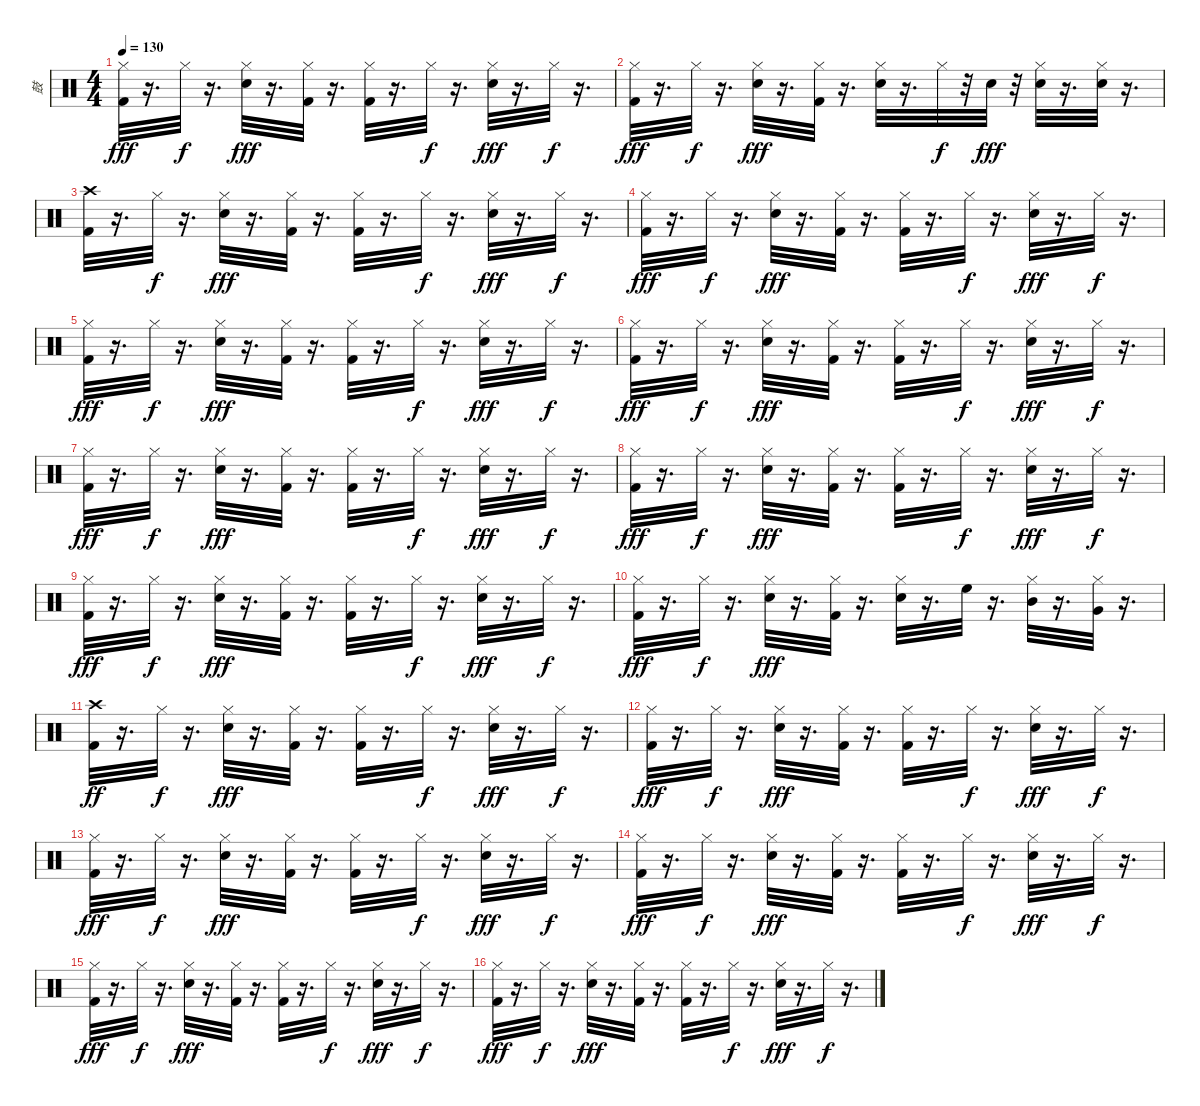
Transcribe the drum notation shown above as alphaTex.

\track ("鼓" "鼓") {instrument percussion}
\staff {score}
\articulation defaults
\ts (4 4)
\tempo 130
\clef neutral
\ks c
("Kick (hit) 2" "Hi-Hat (closed)").32{dy fff} r.16{d} "Hi-Hat (closed)".32{dy f} r.16{d} ("Hi-Hat (closed)" "Electric Snare (hit)").32{dy fff} r.16{d} ("Kick (hit) 2" "Hi-Hat (closed)").32 r.16{d} ("Kick (hit) 2" "Hi-Hat (closed)").32 r.16{d} "Hi-Hat (closed)".32{dy f} r.16{d} ("Hi-Hat (closed)" "Electric Snare (hit)").32{dy fff} r.16{d} "Hi-Hat (closed)".32{dy f} r.16{d} |
("Kick (hit) 2" "Hi-Hat (closed)").32{dy fff} r.16{d} "Hi-Hat (closed)".32{dy f} r.16{d} ("Hi-Hat (closed)" "Electric Snare (hit)").32{dy fff} r.16{d} ("Kick (hit) 2" "Hi-Hat (closed)").32 r.16{d} ("Electric Snare (hit)" "Hi-Hat (closed)").32 r.16{d} "Hi-Hat (closed)".32{dy f} r.32 "Electric Snare (hit)".32{dy fff} r.32 ("Hi-Hat (closed)" "Electric Snare (hit)").32 r.16{d} ("Hi-Hat (closed)" "Electric Snare (hit)").32 r.16{d} |
("Crash high (hit)" "Kick (hit) 2").32 r.16{d} "Hi-Hat (closed)".32{dy f} r.16{d} ("Hi-Hat (closed)" "Electric Snare (hit)").32{dy fff} r.16{d} ("Kick (hit) 2" "Hi-Hat (closed)").32 r.16{d} ("Kick (hit) 2" "Hi-Hat (closed)").32 r.16{d} "Hi-Hat (closed)".32{dy f} r.16{d} ("Hi-Hat (closed)" "Electric Snare (hit)").32{dy fff} r.16{d} "Hi-Hat (closed)".32{dy f} r.16{d} |
("Kick (hit) 2" "Hi-Hat (closed)").32{dy fff} r.16{d} "Hi-Hat (closed)".32{dy f} r.16{d} ("Hi-Hat (closed)" "Electric Snare (hit)").32{dy fff} r.16{d} ("Kick (hit) 2" "Hi-Hat (closed)").32 r.16{d} ("Kick (hit) 2" "Hi-Hat (closed)").32 r.16{d} "Hi-Hat (closed)".32{dy f} r.16{d} ("Hi-Hat (closed)" "Electric Snare (hit)").32{dy fff} r.16{d} "Hi-Hat (closed)".32{dy f} r.16{d} |
("Kick (hit) 2" "Hi-Hat (closed)").32{dy fff} r.16{d} "Hi-Hat (closed)".32{dy f} r.16{d} ("Hi-Hat (closed)" "Electric Snare (hit)").32{dy fff} r.16{d} ("Kick (hit) 2" "Hi-Hat (closed)").32 r.16{d} ("Kick (hit) 2" "Hi-Hat (closed)").32 r.16{d} "Hi-Hat (closed)".32{dy f} r.16{d} ("Hi-Hat (closed)" "Electric Snare (hit)").32{dy fff} r.16{d} "Hi-Hat (closed)".32{dy f} r.16{d} |
("Kick (hit) 2" "Hi-Hat (closed)").32{dy fff} r.16{d} "Hi-Hat (closed)".32{dy f} r.16{d} ("Hi-Hat (closed)" "Electric Snare (hit)").32{dy fff} r.16{d} ("Kick (hit) 2" "Hi-Hat (closed)").32 r.16{d} ("Kick (hit) 2" "Hi-Hat (closed)").32 r.16{d} "Hi-Hat (closed)".32{dy f} r.16{d} ("Hi-Hat (closed)" "Electric Snare (hit)").32{dy fff} r.16{d} "Hi-Hat (closed)".32{dy f} r.16{d} |
("Kick (hit) 2" "Hi-Hat (closed)").32{dy fff} r.16{d} "Hi-Hat (closed)".32{dy f} r.16{d} ("Hi-Hat (closed)" "Electric Snare (hit)").32{dy fff} r.16{d} ("Kick (hit) 2" "Hi-Hat (closed)").32 r.16{d} ("Kick (hit) 2" "Hi-Hat (closed)").32 r.16{d} "Hi-Hat (closed)".32{dy f} r.16{d} ("Hi-Hat (closed)" "Electric Snare (hit)").32{dy fff} r.16{d} "Hi-Hat (closed)".32{dy f} r.16{d} |
("Kick (hit) 2" "Hi-Hat (closed)").32{dy fff} r.16{d} "Hi-Hat (closed)".32{dy f} r.16{d} ("Hi-Hat (closed)" "Electric Snare (hit)").32{dy fff} r.16{d} ("Kick (hit) 2" "Hi-Hat (closed)").32 r.16{d} ("Kick (hit) 2" "Hi-Hat (closed)").32 r.16{d} "Hi-Hat (closed)".32{dy f} r.16{d} ("Hi-Hat (closed)" "Electric Snare (hit)").32{dy fff} r.16{d} "Hi-Hat (closed)".32{dy f} r.16{d} |
("Kick (hit) 2" "Hi-Hat (closed)").32{dy fff} r.16{d} "Hi-Hat (closed)".32{dy f} r.16{d} ("Hi-Hat (closed)" "Electric Snare (hit)").32{dy fff} r.16{d} ("Kick (hit) 2" "Hi-Hat (closed)").32 r.16{d} ("Kick (hit) 2" "Hi-Hat (closed)").32 r.16{d} "Hi-Hat (closed)".32{dy f} r.16{d} ("Hi-Hat (closed)" "Electric Snare (hit)").32{dy fff} r.16{d} "Hi-Hat (closed)".32{dy f} r.16{d} |
("Hi-Hat (closed)" "Kick (hit) 2").32{dy fff} r.16{d} "Hi-Hat (closed)".32{dy f} r.16{d} ("Hi-Hat (closed)" "Electric Snare (hit)").32{dy fff} r.16{d} ("Kick (hit) 2" "Hi-Hat (closed)").32 r.16{d} ("Electric Snare (hit)" "Hi-Hat (closed)").32 r.16{d} "High Floor Tom (hit)".32 r.16{d} ("Hi-Hat (closed)" "Mid Tom (hit)").32 r.16{d} ("Very Low Tom (hit)" "Hi-Hat (closed)").32 r.16{d} |
("Kick (hit) 2" "Crash high (hit)").32{dy ff} r.16{d} "Hi-Hat (closed)".32{dy f} r.16{d} ("Hi-Hat (closed)" "Electric Snare (hit)").32{dy fff} r.16{d} ("Kick (hit) 2" "Hi-Hat (closed)").32 r.16{d} ("Kick (hit) 2" "Hi-Hat (closed)").32 r.16{d} "Hi-Hat (closed)".32{dy f} r.16{d} ("Hi-Hat (closed)" "Electric Snare (hit)").32{dy fff} r.16{d} "Hi-Hat (closed)".32{dy f} r.16{d} |
("Kick (hit) 2" "Hi-Hat (closed)").32{dy fff} r.16{d} "Hi-Hat (closed)".32{dy f} r.16{d} ("Hi-Hat (closed)" "Electric Snare (hit)").32{dy fff} r.16{d} ("Kick (hit) 2" "Hi-Hat (closed)").32 r.16{d} ("Kick (hit) 2" "Hi-Hat (closed)").32 r.16{d} "Hi-Hat (closed)".32{dy f} r.16{d} ("Hi-Hat (closed)" "Electric Snare (hit)").32{dy fff} r.16{d} "Hi-Hat (closed)".32{dy f} r.16{d} |
("Kick (hit) 2" "Hi-Hat (closed)").32{dy fff} r.16{d} "Hi-Hat (closed)".32{dy f} r.16{d} ("Hi-Hat (closed)" "Electric Snare (hit)").32{dy fff} r.16{d} ("Kick (hit) 2" "Hi-Hat (closed)").32 r.16{d} ("Kick (hit) 2" "Hi-Hat (closed)").32 r.16{d} "Hi-Hat (closed)".32{dy f} r.16{d} ("Hi-Hat (closed)" "Electric Snare (hit)").32{dy fff} r.16{d} "Hi-Hat (closed)".32{dy f} r.16{d} |
("Kick (hit) 2" "Hi-Hat (closed)").32{dy fff} r.16{d} "Hi-Hat (closed)".32{dy f} r.16{d} ("Hi-Hat (closed)" "Electric Snare (hit)").32{dy fff} r.16{d} ("Kick (hit) 2" "Hi-Hat (closed)").32 r.16{d} ("Kick (hit) 2" "Hi-Hat (closed)").32 r.16{d} "Hi-Hat (closed)".32{dy f} r.16{d} ("Hi-Hat (closed)" "Electric Snare (hit)").32{dy fff} r.16{d} "Hi-Hat (closed)".32{dy f} r.16{d} |
("Kick (hit) 2" "Hi-Hat (closed)").32{dy fff} r.16{d} "Hi-Hat (closed)".32{dy f} r.16{d} ("Hi-Hat (closed)" "Electric Snare (hit)").32{dy fff} r.16{d} ("Kick (hit) 2" "Hi-Hat (closed)").32 r.16{d} ("Kick (hit) 2" "Hi-Hat (closed)").32 r.16{d} "Hi-Hat (closed)".32{dy f} r.16{d} ("Hi-Hat (closed)" "Electric Snare (hit)").32{dy fff} r.16{d} "Hi-Hat (closed)".32{dy f} r.16{d} |
("Kick (hit) 2" "Hi-Hat (closed)").32{dy fff} r.16{d} "Hi-Hat (closed)".32{dy f} r.16{d} ("Hi-Hat (closed)" "Electric Snare (hit)").32{dy fff} r.16{d} ("Kick (hit) 2" "Hi-Hat (closed)").32 r.16{d} ("Kick (hit) 2" "Hi-Hat (closed)").32 r.16{d} "Hi-Hat (closed)".32{dy f} r.16{d} ("Hi-Hat (closed)" "Electric Snare (hit)").32{dy fff} r.16{d} "Hi-Hat (closed)".32{dy f} r.16{d}
